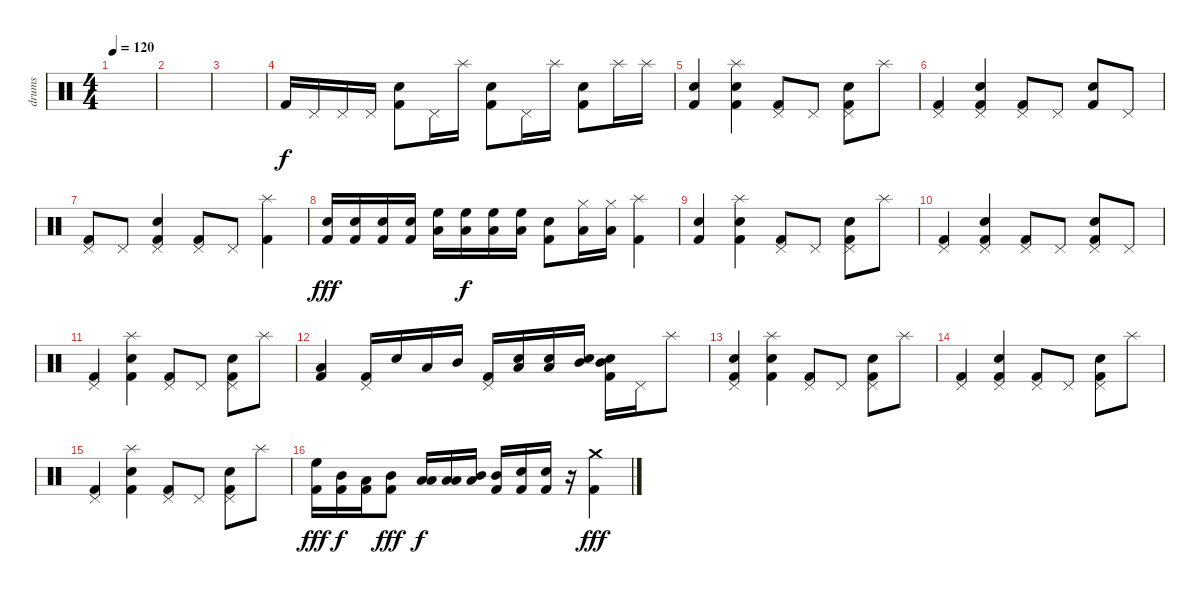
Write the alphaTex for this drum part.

\track ("drums" "drums") {instrument percussion}
\staff {score}
\articulation defaults
\ts (4 4)
\tempo 120
\clef neutral
\ks c
|
|
|
"Kick (hit) 2".16 "Pedal Hi-Hat (hit)".16 "Pedal Hi-Hat (hit)".16 "Pedal Hi-Hat (hit)".16 ("Electric Snare (hit)" "Kick (hit) 2").8 "Pedal Hi-Hat (hit)".16 "Splash (hit)".16 ("Electric Snare (hit)" "Kick (hit) 2").8 "Pedal Hi-Hat (hit)".16 "Splash (hit)".16 ("Electric Snare (hit)" "Kick (hit) 2").8 "Splash (hit)".16 "Splash (hit)".16 |
("Electric Snare (hit)" "Kick (hit) 2").4 ("Splash (hit)" "Electric Snare (hit)" "Kick (hit) 2").4 ("Pedal Hi-Hat (hit)" "Kick (hit) 2").8 "Pedal Hi-Hat (hit)".8 ("Pedal Hi-Hat (hit)" "Electric Snare (hit)" "Kick (hit) 2").8 "Splash (hit)".8 |
("Pedal Hi-Hat (hit)" "Kick (hit) 2").4 ("Pedal Hi-Hat (hit)" "Electric Snare (hit)" "Kick (hit) 2").4 ("Pedal Hi-Hat (hit)" "Kick (hit) 2").8 "Pedal Hi-Hat (hit)".8 ("Electric Snare (hit)" "Kick (hit) 2").8 "Pedal Hi-Hat (hit)".8 |
("Pedal Hi-Hat (hit)" "Kick (hit) 2").8 "Pedal Hi-Hat (hit)".8 ("Pedal Hi-Hat (hit)" "Electric Snare (hit)" "Kick (hit) 2").4 ("Pedal Hi-Hat (hit)" "Kick (hit) 2").8 "Pedal Hi-Hat (hit)".8 ("Splash (hit)" "Kick (hit) 2").4 |
("Electric Snare (hit)" "Kick (hit) 2").16{dy fff} ("Electric Snare (hit)" "Kick (hit) 2").16 ("Electric Snare (hit)" "Kick (hit) 2").16 ("Electric Snare (hit)" "Kick (hit) 2").16 ("High Floor Tom (hit)" "Low Tom (hit)").16 ("High Floor Tom (hit)" "Low Tom (hit)").16{dy f} ("High Floor Tom (hit)" "Low Tom (hit)").16 ("High Floor Tom (hit)" "Low Tom (hit)").16 ("Electric Snare (hit)" "Kick (hit) 2").8 ("Hi-Hat (closed)" "Low Tom (hit)").16 ("Hi-Hat (closed)" "Low Tom (hit)").16 ("Splash (hit)" "Kick (hit) 2").4 |
("Electric Snare (hit)" "Kick (hit) 2").4 ("Splash (hit)" "Electric Snare (hit)" "Kick (hit) 2").4 ("Pedal Hi-Hat (hit)" "Kick (hit) 2").8 "Pedal Hi-Hat (hit)".8 ("Pedal Hi-Hat (hit)" "Electric Snare (hit)" "Kick (hit) 2").8 "Splash (hit)".8 |
("Pedal Hi-Hat (hit)" "Kick (hit) 2").4 ("Pedal Hi-Hat (hit)" "Electric Snare (hit)" "Kick (hit) 2").4 ("Pedal Hi-Hat (hit)" "Kick (hit) 2").8 "Pedal Hi-Hat (hit)".8 ("Pedal Hi-Hat (hit)" "Electric Snare (hit)" "Kick (hit) 2").8 "Pedal Hi-Hat (hit)".8 |
("Pedal Hi-Hat (hit)" "Kick (hit) 2").4 ("Splash (hit)" "Electric Snare (hit)" "Kick (hit) 2").4 ("Pedal Hi-Hat (hit)" "Kick (hit) 2").8 "Pedal Hi-Hat (hit)".8 ("Pedal Hi-Hat (hit)" "Electric Snare (hit)" "Kick (hit) 2").8 "Splash (hit)".8 |
("Low Tom (hit)" "Kick (hit) 2").4 ("Pedal Hi-Hat (hit)" "Kick (hit) 2").16 "Electric Snare (hit)".16 "Low Tom (hit)".16 "Mid Tom (hit)".16 ("Pedal Hi-Hat (hit)" "Kick (hit) 2").16 ("Low Tom (hit)" "Electric Snare (hit)").16 ("Low Tom (hit)" "Electric Snare (hit)").16 ("Mid Tom (hit)" "Electric Snare (hit)").16 ("Mid Tom (hit)" "Electric Snare (hit)" "Kick (hit) 2").16 "Pedal Hi-Hat (hit)".16 "Splash (hit)".8 |
("Pedal Hi-Hat (hit)" "Electric Snare (hit)" "Kick (hit) 2").4 ("Splash (hit)" "Electric Snare (hit)" "Kick (hit) 2").4 ("Pedal Hi-Hat (hit)" "Kick (hit) 2").8 "Pedal Hi-Hat (hit)".8 ("Pedal Hi-Hat (hit)" "Electric Snare (hit)" "Kick (hit) 2").8 "Splash (hit)".8 |
("Pedal Hi-Hat (hit)" "Kick (hit) 2").4 ("Pedal Hi-Hat (hit)" "Electric Snare (hit)" "Kick (hit) 2").4 ("Pedal Hi-Hat (hit)" "Kick (hit) 2").8 "Pedal Hi-Hat (hit)".8 ("Pedal Hi-Hat (hit)" "Electric Snare (hit)" "Kick (hit) 2").8 "Splash (hit)".8 |
("Pedal Hi-Hat (hit)" "Kick (hit) 2").4 ("Splash (hit)" "Electric Snare (hit)" "Kick (hit) 2").4 ("Pedal Hi-Hat (hit)" "Kick (hit) 2").8 "Pedal Hi-Hat (hit)".8 ("Pedal Hi-Hat (hit)" "Electric Snare (hit)" "Kick (hit) 2").8 "Splash (hit)".8 |
("High Floor Tom (hit)" "Kick (hit) 2").16{dy fff} ("Mid Tom (hit)" "Kick (hit) 2").16{dy f} ("Low Tom (hit)" "Kick (hit) 2").16 ("Mid Tom (hit)" "Kick (hit) 2").8{dy fff} ("Low Tom (hit)" "Low Tom (hit)").16{dy f} ("Low Tom (hit)" "Low Tom (hit)").16 ("Mid Tom (hit)" "Low Tom (hit)").16 ("Mid Tom (hit)" "Kick (hit) 2").16 ("Electric Snare (hit)" "Kick (hit) 2").16 ("Electric Snare (hit)" "Kick (hit) 2").16 r.16 ("Crash medium (hit)" "Kick (hit) 2").4{dy fff}
